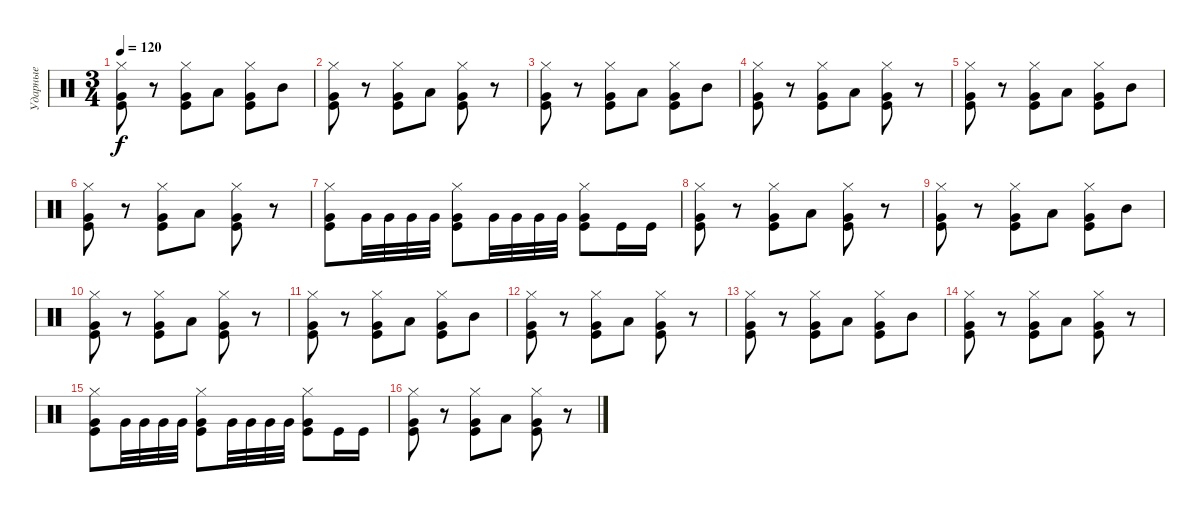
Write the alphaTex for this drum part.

\track ("Ударные" "Ударные") {instrument percussion}
\staff {score}
\articulation defaults
\ts (3 4)
\tempo 120
\clef neutral
\ks c
("Hi-Hat (closed)" "Very Low Tom (hit)" "Kick (hit)").8{dy f} r.8 ("Hi-Hat (closed)" "Very Low Tom (hit)" "Kick (hit)").8 "Low Tom (hit)".8 ("Hi-Hat (closed)" "Very Low Tom (hit)" "Kick (hit)").8 "Mid Tom (hit)".8 |
("Hi-Hat (closed)" "Very Low Tom (hit)" "Kick (hit)").8 r.8 ("Hi-Hat (closed)" "Very Low Tom (hit)" "Kick (hit)").8 "Low Tom (hit)".8 ("Hi-Hat (closed)" "Very Low Tom (hit)" "Kick (hit)").8 r.8 |
("Hi-Hat (closed)" "Very Low Tom (hit)" "Kick (hit)").8 r.8 ("Hi-Hat (closed)" "Very Low Tom (hit)" "Kick (hit)").8 "Low Tom (hit)".8 ("Hi-Hat (closed)" "Very Low Tom (hit)" "Kick (hit)").8 "Mid Tom (hit)".8 |
("Hi-Hat (closed)" "Very Low Tom (hit)" "Kick (hit)").8 r.8 ("Hi-Hat (closed)" "Very Low Tom (hit)" "Kick (hit)").8 "Low Tom (hit)".8 ("Hi-Hat (closed)" "Very Low Tom (hit)" "Kick (hit)").8 r.8 |
("Hi-Hat (closed)" "Very Low Tom (hit)" "Kick (hit)").8 r.8 ("Hi-Hat (closed)" "Very Low Tom (hit)" "Kick (hit)").8 "Low Tom (hit)".8 ("Hi-Hat (closed)" "Very Low Tom (hit)" "Kick (hit)").8 "Mid Tom (hit)".8 |
("Hi-Hat (closed)" "Very Low Tom (hit)" "Kick (hit)").8 r.8 ("Hi-Hat (closed)" "Very Low Tom (hit)" "Kick (hit)").8 "Low Tom (hit)".8 ("Hi-Hat (closed)" "Very Low Tom (hit)" "Kick (hit)").8 r.8 |
("Hi-Hat (closed)" "Very Low Tom (hit)" "Kick (hit)").8 "Very Low Tom (hit)".32 "Very Low Tom (hit)".32 "Very Low Tom (hit)".32 "Very Low Tom (hit)".32 ("Hi-Hat (closed)" "Very Low Tom (hit)" "Kick (hit)").8 "Very Low Tom (hit)".32 "Very Low Tom (hit)".32 "Very Low Tom (hit)".32 "Very Low Tom (hit)".32 ("Hi-Hat (closed)" "Very Low Tom (hit)" "Kick (hit)").8 "Kick (hit)".16 "Kick (hit)".16 |
("Hi-Hat (closed)" "Very Low Tom (hit)" "Kick (hit)").8 r.8 ("Hi-Hat (closed)" "Very Low Tom (hit)" "Kick (hit)").8 "Low Tom (hit)".8 ("Hi-Hat (closed)" "Very Low Tom (hit)" "Kick (hit)").8 r.8 |
("Hi-Hat (closed)" "Very Low Tom (hit)" "Kick (hit)").8 r.8 ("Hi-Hat (closed)" "Very Low Tom (hit)" "Kick (hit)").8 "Low Tom (hit)".8 ("Hi-Hat (closed)" "Very Low Tom (hit)" "Kick (hit)").8 "Mid Tom (hit)".8 |
("Hi-Hat (closed)" "Very Low Tom (hit)" "Kick (hit)").8 r.8 ("Hi-Hat (closed)" "Very Low Tom (hit)" "Kick (hit)").8 "Low Tom (hit)".8 ("Hi-Hat (closed)" "Very Low Tom (hit)" "Kick (hit)").8 r.8 |
("Hi-Hat (closed)" "Very Low Tom (hit)" "Kick (hit)").8 r.8 ("Hi-Hat (closed)" "Very Low Tom (hit)" "Kick (hit)").8 "Low Tom (hit)".8 ("Hi-Hat (closed)" "Very Low Tom (hit)" "Kick (hit)").8 "Mid Tom (hit)".8 |
("Hi-Hat (closed)" "Very Low Tom (hit)" "Kick (hit)").8 r.8 ("Hi-Hat (closed)" "Very Low Tom (hit)" "Kick (hit)").8 "Low Tom (hit)".8 ("Hi-Hat (closed)" "Very Low Tom (hit)" "Kick (hit)").8 r.8 |
("Hi-Hat (closed)" "Very Low Tom (hit)" "Kick (hit)").8 r.8 ("Hi-Hat (closed)" "Very Low Tom (hit)" "Kick (hit)").8 "Low Tom (hit)".8 ("Hi-Hat (closed)" "Very Low Tom (hit)" "Kick (hit)").8 "Mid Tom (hit)".8 |
("Hi-Hat (closed)" "Very Low Tom (hit)" "Kick (hit)").8 r.8 ("Hi-Hat (closed)" "Very Low Tom (hit)" "Kick (hit)").8 "Low Tom (hit)".8 ("Hi-Hat (closed)" "Very Low Tom (hit)" "Kick (hit)").8 r.8 |
("Hi-Hat (closed)" "Very Low Tom (hit)" "Kick (hit)").8 "Very Low Tom (hit)".32 "Very Low Tom (hit)".32 "Very Low Tom (hit)".32 "Very Low Tom (hit)".32 ("Hi-Hat (closed)" "Very Low Tom (hit)" "Kick (hit)").8 "Very Low Tom (hit)".32 "Very Low Tom (hit)".32 "Very Low Tom (hit)".32 "Very Low Tom (hit)".32 ("Hi-Hat (closed)" "Very Low Tom (hit)" "Kick (hit)").8 "Kick (hit)".16 "Kick (hit)".16 |
("Hi-Hat (closed)" "Very Low Tom (hit)" "Kick (hit)").8 r.8 ("Hi-Hat (closed)" "Very Low Tom (hit)" "Kick (hit)").8 "Low Tom (hit)".8 ("Hi-Hat (closed)" "Very Low Tom (hit)" "Kick (hit)").8 r.8
